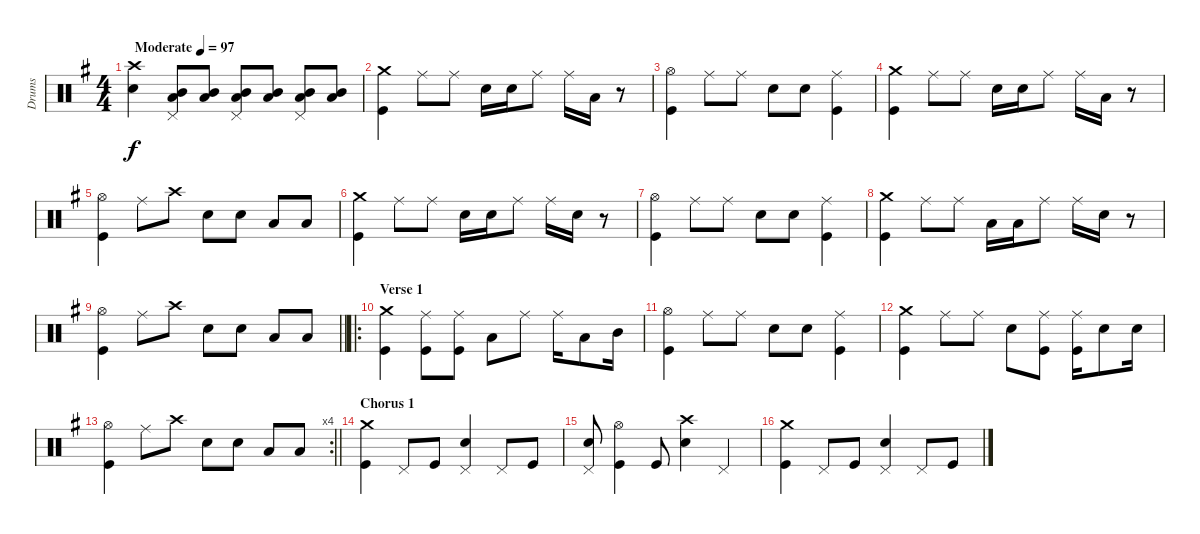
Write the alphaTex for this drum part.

\track ("Drums" "Drums") {instrument percussion}
\staff {score}
\articulation defaults
\ts (4 4)
\tempo (97 "Moderate")
\clef neutral
\ks g
("Crash high (hit)" "Snare (hit) 2").4{dy f} ("Pedal Hi-Hat (hit)" "Low Tom (hit)" "Mid Tom (hit)").8 ("Low Tom (hit)" "Mid Tom (hit)").8 ("Pedal Hi-Hat (hit)" "Low Tom (hit)" "Mid Tom (hit)").8 ("Low Tom (hit)" "Mid Tom (hit)").8 ("Pedal Hi-Hat (hit)" "Low Tom (hit)" "Mid Tom (hit)").8 ("Low Tom (hit)" "Mid Tom (hit)").8 |
("Crash medium (hit)" "Kick (hit)").4 "Ride (middle)".8 "Ride (middle)".8 "Snare (hit) 2".16 "Snare (hit) 2".16 "Ride (middle)".8 "Ride (middle)".16 "Low Tom (hit)".16 r.8 |
("Hi-Hat (open)" "Kick (hit)").4 "Ride (middle)".8 "Ride (middle)".8 "Snare (hit) 2".8 "Snare (hit) 2".8 ("Ride (middle)" "Kick (hit)").4 |
("Crash medium (hit)" "Kick (hit)").4 "Ride (middle)".8 "Ride (middle)".8 "Snare (hit) 2".16 "Snare (hit) 2".16 "Ride (middle)".8 "Ride (middle)".16 "Low Tom (hit)".16 r.8 |
("Hi-Hat (open)" "Kick (hit)").4 "Ride (middle)".8 "Crash high (hit)".8 "Snare (hit) 2".8 "Snare (hit) 2".8 "Low Tom (hit)".8 "Low Tom (hit)".8 |
("Crash medium (hit)" "Kick (hit)").4 "Ride (middle)".8 "Ride (middle)".8 "Snare (hit) 2".16 "Snare (hit) 2".16 "Ride (middle)".8 "Ride (middle)".16 "Snare (hit) 2".16 r.8 |
("Hi-Hat (open)" "Kick (hit)").4 "Ride (middle)".8 "Ride (middle)".8 "Snare (hit) 2".8 "Snare (hit) 2".8 ("Ride (middle)" "Kick (hit)").4 |
("Crash medium (hit)" "Kick (hit)").4 "Ride (middle)".8 "Ride (middle)".8 "Low Tom (hit)".16 "Low Tom (hit)".16 "Ride (middle)".8 "Ride (middle)".16 "Snare (hit) 2".16 r.8 |
\barLineRight lightlight
("Hi-Hat (open)" "Kick (hit)").4 "Ride (middle)".8 "Crash high (hit)".8 "Snare (hit) 2".8 "Snare (hit) 2".8 "Low Tom (hit)".8 "Low Tom (hit)".8 |
\ro
\section ("" "Verse 1")
("Crash medium (hit)" "Kick (hit)").4 ("Ride (middle)" "Kick (hit)").8 ("Ride (middle)" "Kick (hit)").8 "Low Tom (hit)".8 "Ride (middle)".8 "Ride (middle)".16 "Low Tom (hit)".8 "Mid Tom (hit)".16 |
("Hi-Hat (open)" "Kick (hit)").4 "Ride (middle)".8 "Ride (middle)".8 "Snare (hit) 2".8 "Snare (hit) 2".8 ("Ride (middle)" "Kick (hit)").4 |
("Crash medium (hit)" "Kick (hit)").4 "Ride (middle)".8 "Ride (middle)".8 "Snare (hit) 2".8 ("Ride (middle)" "Kick (hit)").8 ("Ride (middle)" "Kick (hit)").16 "Snare (hit) 2".8 "Snare (hit) 2".16 |
\rc 4
\barLineRight lightlight
("Hi-Hat (open)" "Kick (hit)").4 "Ride (middle)".8 "Crash high (hit)".8 "Snare (hit) 2".8 "Snare (hit) 2".8 "Low Tom (hit)".8 "Low Tom (hit)".8 |
\section ("" "Chorus 1")
("Crash medium (hit)" "Kick (hit)").4 "Pedal Hi-Hat (hit)".8 "Kick (hit)".8 ("Pedal Hi-Hat (hit)" "Snare (hit) 2").4 "Pedal Hi-Hat (hit)".8 "Kick (hit)".8 |
("Pedal Hi-Hat (hit)" "Snare (hit) 2").8 ("Hi-Hat (open)" "Kick (hit)").4 "Kick (hit)".8 ("Crash high (hit)" "Snare (hit) 2").4 "Pedal Hi-Hat (hit)".4 |
("Crash medium (hit)" "Kick (hit)").4 "Pedal Hi-Hat (hit)".8 "Kick (hit)".8 ("Pedal Hi-Hat (hit)" "Snare (hit) 2").4 "Pedal Hi-Hat (hit)".8 "Kick (hit)".8
